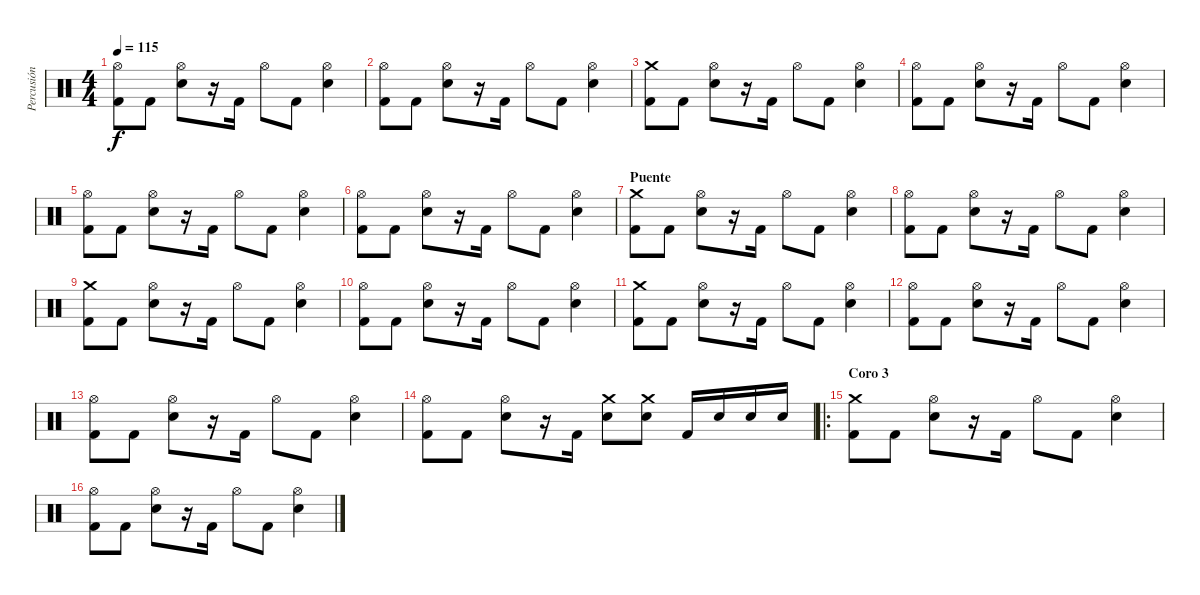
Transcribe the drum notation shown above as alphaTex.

\track ("Percusión" "Percusión") {instrument percussion}
\staff {score}
\articulation defaults
\ts (4 4)
\tempo 115
\clef neutral
\ks c
("Kick (hit) 2" "Hi-Hat (open)").8{dy f} "Kick (hit) 2".8 ("Electric Snare (hit)" "Hi-Hat (open)").8 r.16 "Kick (hit) 2".16 "Hi-Hat (open)".8 "Kick (hit) 2".8 ("Electric Snare (hit)" "Hi-Hat (open)").4 |
("Kick (hit) 2" "Hi-Hat (open)").8 "Kick (hit) 2".8 ("Electric Snare (hit)" "Hi-Hat (open)").8 r.16 "Kick (hit) 2".16 "Hi-Hat (open)".8 "Kick (hit) 2".8 ("Electric Snare (hit)" "Hi-Hat (open)").4 |
("Kick (hit) 2" "Crash medium (hit)").8 "Kick (hit) 2".8 ("Electric Snare (hit)" "Hi-Hat (open)").8 r.16 "Kick (hit) 2".16 "Hi-Hat (open)".8 "Kick (hit) 2".8 ("Electric Snare (hit)" "Hi-Hat (open)").4 |
("Kick (hit) 2" "Hi-Hat (open)").8 "Kick (hit) 2".8 ("Electric Snare (hit)" "Hi-Hat (open)").8 r.16 "Kick (hit) 2".16 "Hi-Hat (open)".8 "Kick (hit) 2".8 ("Electric Snare (hit)" "Hi-Hat (open)").4 |
("Kick (hit) 2" "Hi-Hat (open)").8 "Kick (hit) 2".8 ("Electric Snare (hit)" "Hi-Hat (open)").8 r.16 "Kick (hit) 2".16 "Hi-Hat (open)".8 "Kick (hit) 2".8 ("Electric Snare (hit)" "Hi-Hat (open)").4 |
("Kick (hit) 2" "Hi-Hat (open)").8 "Kick (hit) 2".8 ("Electric Snare (hit)" "Hi-Hat (open)").8 r.16 "Kick (hit) 2".16 "Hi-Hat (open)".8 "Kick (hit) 2".8 ("Electric Snare (hit)" "Hi-Hat (open)").4 |
\section ("" "Puente")
("Kick (hit) 2" "Crash medium (hit)").8 "Kick (hit) 2".8 ("Electric Snare (hit)" "Hi-Hat (open)").8 r.16 "Kick (hit) 2".16 "Hi-Hat (open)".8 "Kick (hit) 2".8 ("Electric Snare (hit)" "Hi-Hat (open)").4 |
("Kick (hit) 2" "Hi-Hat (open)").8 "Kick (hit) 2".8 ("Electric Snare (hit)" "Hi-Hat (open)").8 r.16 "Kick (hit) 2".16 "Hi-Hat (open)".8 "Kick (hit) 2".8 ("Electric Snare (hit)" "Hi-Hat (open)").4 |
("Kick (hit) 2" "Crash medium (hit)").8 "Kick (hit) 2".8 ("Electric Snare (hit)" "Hi-Hat (open)").8 r.16 "Kick (hit) 2".16 "Hi-Hat (open)".8 "Kick (hit) 2".8 ("Electric Snare (hit)" "Hi-Hat (open)").4 |
("Kick (hit) 2" "Hi-Hat (open)").8 "Kick (hit) 2".8 ("Electric Snare (hit)" "Hi-Hat (open)").8 r.16 "Kick (hit) 2".16 "Hi-Hat (open)".8 "Kick (hit) 2".8 ("Electric Snare (hit)" "Hi-Hat (open)").4 |
("Kick (hit) 2" "Crash medium (hit)").8 "Kick (hit) 2".8 ("Electric Snare (hit)" "Hi-Hat (open)").8 r.16 "Kick (hit) 2".16 "Hi-Hat (open)".8 "Kick (hit) 2".8 ("Electric Snare (hit)" "Hi-Hat (open)").4 |
("Kick (hit) 2" "Hi-Hat (open)").8 "Kick (hit) 2".8 ("Electric Snare (hit)" "Hi-Hat (open)").8 r.16 "Kick (hit) 2".16 "Hi-Hat (open)".8 "Kick (hit) 2".8 ("Electric Snare (hit)" "Hi-Hat (open)").4 |
("Kick (hit) 2" "Hi-Hat (open)").8 "Kick (hit) 2".8 ("Electric Snare (hit)" "Hi-Hat (open)").8 r.16 "Kick (hit) 2".16 "Hi-Hat (open)".8 "Kick (hit) 2".8 ("Electric Snare (hit)" "Hi-Hat (open)").4 |
("Kick (hit) 2" "Hi-Hat (open)").8 "Kick (hit) 2".8 ("Electric Snare (hit)" "Hi-Hat (open)").8 r.16 "Kick (hit) 2".16 ("Crash medium (hit)" "Electric Snare (hit)").8 ("Crash medium (hit)" "Electric Snare (hit)").8 "Kick (hit) 2".16 "Electric Snare (hit)".16 "Electric Snare (hit)".16 "Electric Snare (hit)".16 |
\ro
\section ("" "Coro 3")
("Kick (hit) 2" "Crash medium (hit)").8 "Kick (hit) 2".8 ("Electric Snare (hit)" "Hi-Hat (open)").8 r.16 "Kick (hit) 2".16 "Hi-Hat (open)".8 "Kick (hit) 2".8 ("Electric Snare (hit)" "Hi-Hat (open)").4 |
("Kick (hit) 2" "Hi-Hat (open)").8 "Kick (hit) 2".8 ("Electric Snare (hit)" "Hi-Hat (open)").8 r.16 "Kick (hit) 2".16 "Hi-Hat (open)".8 "Kick (hit) 2".8 ("Electric Snare (hit)" "Hi-Hat (open)").4
